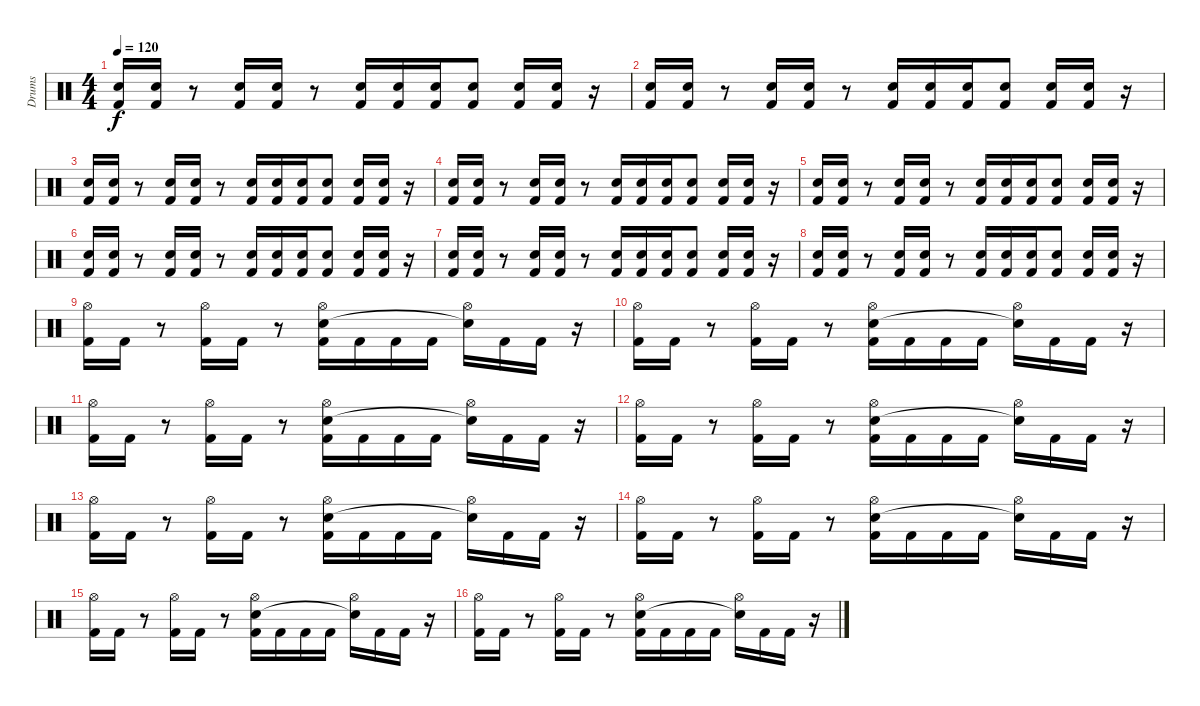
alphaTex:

\track ("Drums" "Drums") {instrument percussion}
\staff {score}
\articulation defaults
\ts (4 4)
\tempo 120
\clef neutral
\ks c
("Snare (hit) 2" "Kick (hit) 2").16{dy f} ("Snare (hit) 2" "Kick (hit) 2").16 r.8 ("Snare (hit) 2" "Kick (hit) 2").16 ("Snare (hit) 2" "Kick (hit) 2").16 r.8 ("Snare (hit) 2" "Kick (hit) 2").16 ("Snare (hit) 2" "Kick (hit) 2").16 ("Snare (hit) 2" "Kick (hit) 2").16 ("Snare (hit) 2" "Kick (hit) 2").8 ("Snare (hit) 2" "Kick (hit) 2").16 ("Snare (hit) 2" "Kick (hit) 2").16 r.16 |
("Snare (hit) 2" "Kick (hit) 2").16 ("Snare (hit) 2" "Kick (hit) 2").16 r.8 ("Snare (hit) 2" "Kick (hit) 2").16 ("Snare (hit) 2" "Kick (hit) 2").16 r.8 ("Snare (hit) 2" "Kick (hit) 2").16 ("Snare (hit) 2" "Kick (hit) 2").16 ("Snare (hit) 2" "Kick (hit) 2").16 ("Snare (hit) 2" "Kick (hit) 2").8 ("Snare (hit) 2" "Kick (hit) 2").16 ("Snare (hit) 2" "Kick (hit) 2").16 r.16 |
("Snare (hit) 2" "Kick (hit) 2").16 ("Snare (hit) 2" "Kick (hit) 2").16 r.8 ("Snare (hit) 2" "Kick (hit) 2").16 ("Snare (hit) 2" "Kick (hit) 2").16 r.8 ("Snare (hit) 2" "Kick (hit) 2").16 ("Snare (hit) 2" "Kick (hit) 2").16 ("Snare (hit) 2" "Kick (hit) 2").16 ("Snare (hit) 2" "Kick (hit) 2").8 ("Snare (hit) 2" "Kick (hit) 2").16 ("Snare (hit) 2" "Kick (hit) 2").16 r.16 |
("Snare (hit) 2" "Kick (hit) 2").16 ("Snare (hit) 2" "Kick (hit) 2").16 r.8 ("Snare (hit) 2" "Kick (hit) 2").16 ("Snare (hit) 2" "Kick (hit) 2").16 r.8 ("Snare (hit) 2" "Kick (hit) 2").16 ("Snare (hit) 2" "Kick (hit) 2").16 ("Snare (hit) 2" "Kick (hit) 2").16 ("Snare (hit) 2" "Kick (hit) 2").8 ("Snare (hit) 2" "Kick (hit) 2").16 ("Snare (hit) 2" "Kick (hit) 2").16 r.16 |
("Snare (hit) 2" "Kick (hit) 2").16 ("Snare (hit) 2" "Kick (hit) 2").16 r.8 ("Snare (hit) 2" "Kick (hit) 2").16 ("Snare (hit) 2" "Kick (hit) 2").16 r.8 ("Snare (hit) 2" "Kick (hit) 2").16 ("Snare (hit) 2" "Kick (hit) 2").16 ("Snare (hit) 2" "Kick (hit) 2").16 ("Snare (hit) 2" "Kick (hit) 2").8 ("Snare (hit) 2" "Kick (hit) 2").16 ("Snare (hit) 2" "Kick (hit) 2").16 r.16 |
("Snare (hit) 2" "Kick (hit) 2").16 ("Snare (hit) 2" "Kick (hit) 2").16 r.8 ("Snare (hit) 2" "Kick (hit) 2").16 ("Snare (hit) 2" "Kick (hit) 2").16 r.8 ("Snare (hit) 2" "Kick (hit) 2").16 ("Snare (hit) 2" "Kick (hit) 2").16 ("Snare (hit) 2" "Kick (hit) 2").16 ("Snare (hit) 2" "Kick (hit) 2").8 ("Snare (hit) 2" "Kick (hit) 2").16 ("Snare (hit) 2" "Kick (hit) 2").16 r.16 |
("Snare (hit) 2" "Kick (hit) 2").16 ("Snare (hit) 2" "Kick (hit) 2").16 r.8 ("Snare (hit) 2" "Kick (hit) 2").16 ("Snare (hit) 2" "Kick (hit) 2").16 r.8 ("Snare (hit) 2" "Kick (hit) 2").16 ("Snare (hit) 2" "Kick (hit) 2").16 ("Snare (hit) 2" "Kick (hit) 2").16 ("Snare (hit) 2" "Kick (hit) 2").8 ("Snare (hit) 2" "Kick (hit) 2").16 ("Snare (hit) 2" "Kick (hit) 2").16 r.16 |
("Snare (hit) 2" "Kick (hit) 2").16 ("Snare (hit) 2" "Kick (hit) 2").16 r.8 ("Snare (hit) 2" "Kick (hit) 2").16 ("Snare (hit) 2" "Kick (hit) 2").16 r.8 ("Snare (hit) 2" "Kick (hit) 2").16 ("Snare (hit) 2" "Kick (hit) 2").16 ("Snare (hit) 2" "Kick (hit) 2").16 ("Snare (hit) 2" "Kick (hit) 2").8 ("Snare (hit) 2" "Kick (hit) 2").16 ("Snare (hit) 2" "Kick (hit) 2").16 r.16 |
("Hi-Hat (open)" "Kick (hit) 2").16 "Kick (hit) 2".16 r.8 ("Hi-Hat (open)" "Kick (hit) 2").16 "Kick (hit) 2".16 r.8 ("Hi-Hat (open)" "Snare (hit) 2" "Kick (hit) 2").16 "Kick (hit) 2".16 "Kick (hit) 2".16 "Kick (hit) 2".16 ("Hi-Hat (open)" "Snare (hit)"{t}).16 "Kick (hit) 2".16 "Kick (hit) 2".16 r.16 |
("Hi-Hat (open)" "Kick (hit) 2").16 "Kick (hit) 2".16 r.8 ("Hi-Hat (open)" "Kick (hit) 2").16 "Kick (hit) 2".16 r.8 ("Hi-Hat (open)" "Snare (hit) 2" "Kick (hit) 2").16 "Kick (hit) 2".16 "Kick (hit) 2".16 "Kick (hit) 2".16 ("Hi-Hat (open)" "Snare (hit)"{t}).16 "Kick (hit) 2".16 "Kick (hit) 2".16 r.16 |
("Hi-Hat (open)" "Kick (hit) 2").16 "Kick (hit) 2".16 r.8 ("Hi-Hat (open)" "Kick (hit) 2").16 "Kick (hit) 2".16 r.8 ("Hi-Hat (open)" "Snare (hit) 2" "Kick (hit) 2").16 "Kick (hit) 2".16 "Kick (hit) 2".16 "Kick (hit) 2".16 ("Hi-Hat (open)" "Snare (hit)"{t}).16 "Kick (hit) 2".16 "Kick (hit) 2".16 r.16 |
("Hi-Hat (open)" "Kick (hit) 2").16 "Kick (hit) 2".16 r.8 ("Hi-Hat (open)" "Kick (hit) 2").16 "Kick (hit) 2".16 r.8 ("Hi-Hat (open)" "Snare (hit) 2" "Kick (hit) 2").16 "Kick (hit) 2".16 "Kick (hit) 2".16 "Kick (hit) 2".16 ("Hi-Hat (open)" "Snare (hit)"{t}).16 "Kick (hit) 2".16 "Kick (hit) 2".16 r.16 |
("Hi-Hat (open)" "Kick (hit) 2").16 "Kick (hit) 2".16 r.8 ("Hi-Hat (open)" "Kick (hit) 2").16 "Kick (hit) 2".16 r.8 ("Hi-Hat (open)" "Snare (hit) 2" "Kick (hit) 2").16 "Kick (hit) 2".16 "Kick (hit) 2".16 "Kick (hit) 2".16 ("Hi-Hat (open)" "Snare (hit)"{t}).16 "Kick (hit) 2".16 "Kick (hit) 2".16 r.16 |
("Hi-Hat (open)" "Kick (hit) 2").16 "Kick (hit) 2".16 r.8 ("Hi-Hat (open)" "Kick (hit) 2").16 "Kick (hit) 2".16 r.8 ("Hi-Hat (open)" "Snare (hit) 2" "Kick (hit) 2").16 "Kick (hit) 2".16 "Kick (hit) 2".16 "Kick (hit) 2".16 ("Hi-Hat (open)" "Snare (hit)"{t}).16 "Kick (hit) 2".16 "Kick (hit) 2".16 r.16 |
("Hi-Hat (open)" "Kick (hit) 2").16 "Kick (hit) 2".16 r.8 ("Hi-Hat (open)" "Kick (hit) 2").16 "Kick (hit) 2".16 r.8 ("Hi-Hat (open)" "Snare (hit) 2" "Kick (hit) 2").16 "Kick (hit) 2".16 "Kick (hit) 2".16 "Kick (hit) 2".16 ("Hi-Hat (open)" "Snare (hit)"{t}).16 "Kick (hit) 2".16 "Kick (hit) 2".16 r.16 |
("Hi-Hat (open)" "Kick (hit) 2").16 "Kick (hit) 2".16 r.8 ("Hi-Hat (open)" "Kick (hit) 2").16 "Kick (hit) 2".16 r.8 ("Hi-Hat (open)" "Snare (hit) 2" "Kick (hit) 2").16 "Kick (hit) 2".16 "Kick (hit) 2".16 "Kick (hit) 2".16 ("Hi-Hat (open)" "Snare (hit)"{t}).16 "Kick (hit) 2".16 "Kick (hit) 2".16 r.16
